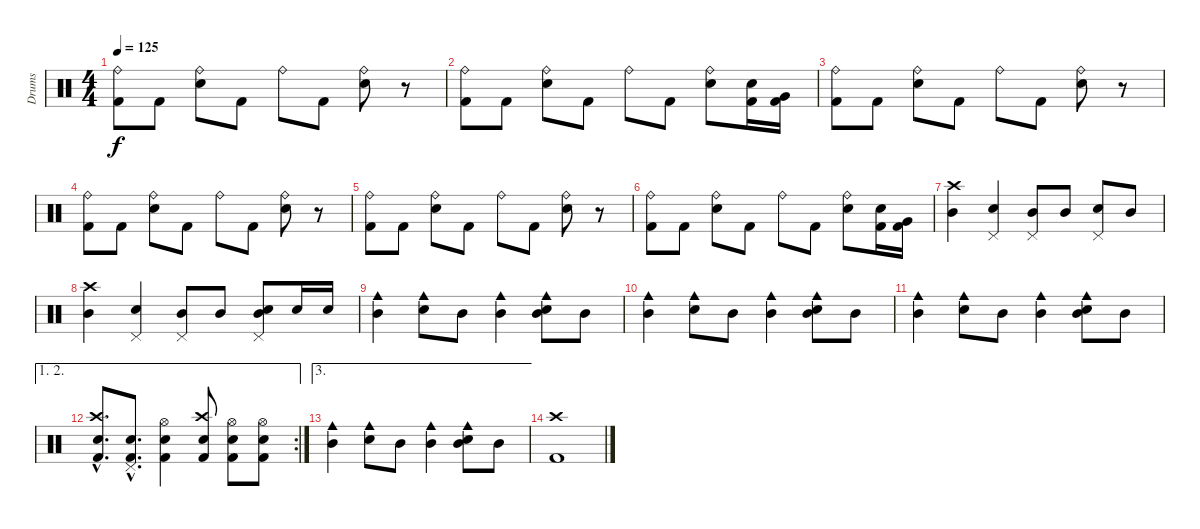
\track ("Drums" "Drums") {instrument percussion}
\staff {score}
\articulation defaults
\ts (4 4)
\tempo 125
\clef neutral
\ks c
("Ride (bell)" "Kick (hit) 2").8{dy f} "Kick (hit) 2".8 ("Ride (bell)" "Electric Snare (hit)").8 "Kick (hit) 2".8 "Ride (bell)".8 "Kick (hit) 2".8 ("Ride (bell)" "Electric Snare (hit)").8 r.8 |
("Ride (bell)" "Kick (hit) 2").8 "Kick (hit) 2".8 ("Ride (bell)" "Electric Snare (hit)").8 "Kick (hit) 2".8 "Ride (bell)".8 "Kick (hit) 2".8 ("Ride (bell)" "Electric Snare (hit)").8 ("Electric Snare (hit)" "Kick (hit) 2").16 ("Very Low Tom (hit)" "Kick (hit) 2").16 |
("Ride (bell)" "Kick (hit) 2").8 "Kick (hit) 2".8 ("Ride (bell)" "Electric Snare (hit)").8 "Kick (hit) 2".8 "Ride (bell)".8 "Kick (hit) 2".8 ("Ride (bell)" "Electric Snare (hit)").8 r.8 |
("Ride (bell)" "Kick (hit) 2").8 "Kick (hit) 2".8 ("Ride (bell)" "Electric Snare (hit)").8 "Kick (hit) 2".8 "Ride (bell)".8 "Kick (hit) 2".8 ("Ride (bell)" "Electric Snare (hit)").8 r.8 |
("Ride (bell)" "Kick (hit) 2").8 "Kick (hit) 2".8 ("Ride (bell)" "Electric Snare (hit)").8 "Kick (hit) 2".8 "Ride (bell)".8 "Kick (hit) 2".8 ("Ride (bell)" "Electric Snare (hit)").8 r.8 |
("Ride (bell)" "Kick (hit) 2").8 "Kick (hit) 2".8 ("Ride (bell)" "Electric Snare (hit)").8 "Kick (hit) 2".8 "Ride (bell)".8 "Kick (hit) 2".8 ("Ride (bell)" "Electric Snare (hit)").8 ("Electric Snare (hit)" "Kick (hit) 2").16 ("Very Low Tom (hit)" "Kick (hit) 2").16 |
("Crash high (hit)" "Mid Tom (hit)").4 ("Pedal Hi-Hat (hit)" "Snare (hit) 2").4 ("Pedal Hi-Hat (hit)" "Mid Tom (hit)").8 "Mid Tom (hit)".8 ("Pedal Hi-Hat (hit)" "Snare (hit) 2").8 "Mid Tom (hit)".8 |
("Crash high (hit)" "Mid Tom (hit)").4 ("Pedal Hi-Hat (hit)" "Snare (hit) 2").4 ("Pedal Hi-Hat (hit)" "Mid Tom (hit)").8 "Mid Tom (hit)".8 ("Pedal Hi-Hat (hit)" "Mid Tom (hit)" "Electric Snare (hit)").8 "Electric Snare (hit)".16 "Electric Snare (hit)".16 |
("Cowbell medium (hit)" "Mid Tom (hit)").4 ("Cowbell medium (hit)" "Electric Snare (hit)").8 "Mid Tom (hit)".8 ("Cowbell medium (hit)" "Mid Tom (hit)").4 ("Cowbell medium (hit)" "Mid Tom (hit)" "Electric Snare (hit)").8 "Mid Tom (hit)".8 |
("Cowbell medium (hit)" "Mid Tom (hit)").4 ("Cowbell medium (hit)" "Electric Snare (hit)").8 "Mid Tom (hit)".8 ("Cowbell medium (hit)" "Mid Tom (hit)").4 ("Cowbell medium (hit)" "Mid Tom (hit)" "Electric Snare (hit)").8 "Mid Tom (hit)".8 |
("Cowbell medium (hit)" "Mid Tom (hit)").4 ("Cowbell medium (hit)" "Electric Snare (hit)").8 "Mid Tom (hit)".8 ("Cowbell medium (hit)" "Mid Tom (hit)").4 ("Cowbell medium (hit)" "Mid Tom (hit)" "Electric Snare (hit)").8 "Mid Tom (hit)".8 |
\ae (1 2)
\rc 2
("Crash high (hit)"{hac} "Snare (hit) 2"{hac} "Kick (hit) 2"{hac}).8{d} ("Pedal Hi-Hat (hit)"{hac} "Snare (hit) 2"{hac} "Kick (hit) 2"{hac}).8{d} ("Hi-Hat (open)" "Snare (hit) 2" "Kick (hit) 2").4 ("Crash high (hit)" "Snare (hit) 2" "Kick (hit) 2").8 ("Hi-Hat (open)" "Snare (hit) 2" "Kick (hit) 2").8 ("Hi-Hat (open)" "Snare (hit) 2" "Kick (hit) 2").8 |
\ae 3
("Cowbell medium (hit)" "Mid Tom (hit)").4 ("Cowbell medium (hit)" "Electric Snare (hit)").8 "Mid Tom (hit)".8 ("Cowbell medium (hit)" "Mid Tom (hit)").4 ("Cowbell medium (hit)" "Mid Tom (hit)" "Electric Snare (hit)").8 "Mid Tom (hit)".8 |
("Crash high (hit)" "Kick (hit) 2").1
